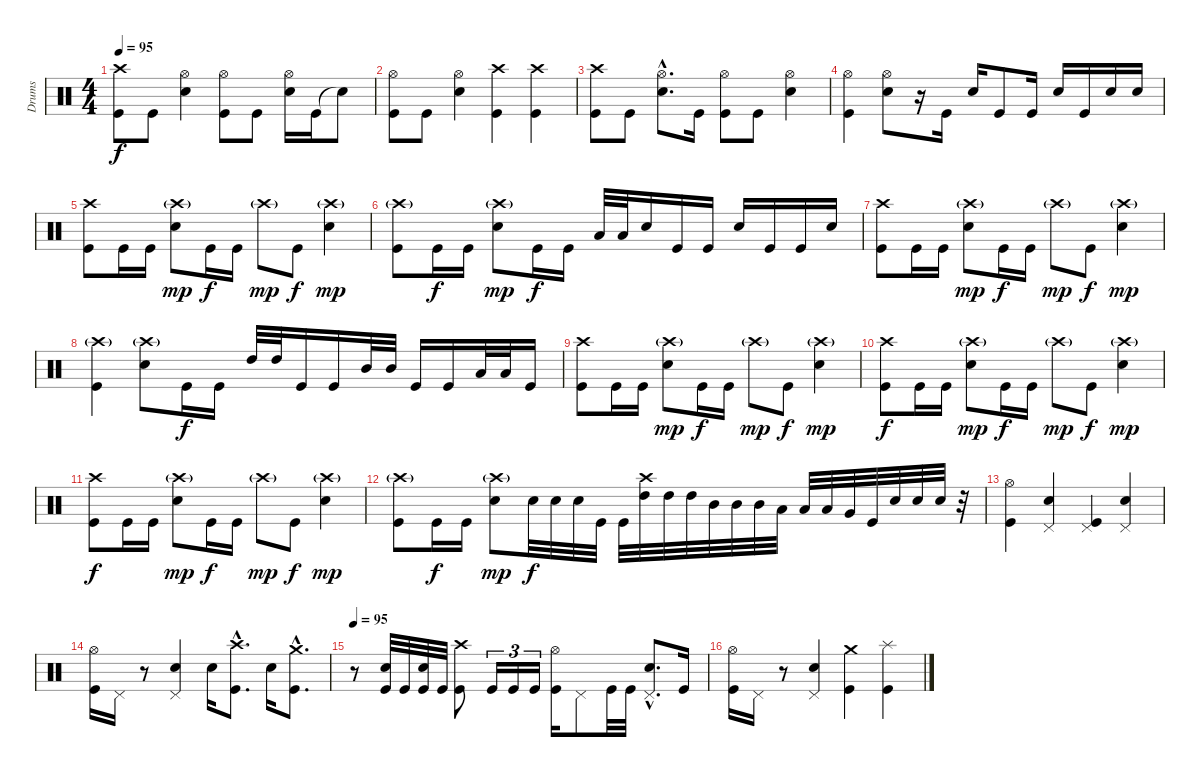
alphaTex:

\track ("Drums" "Drums") {instrument percussion}
\staff {score}
\articulation defaults
\ts (4 4)
\tempo 95
\clef neutral
\ks c
("Crash high (hit)" "Kick (hit)").8{dy f} "Kick (hit)".8 ("Hi-Hat (open)" "Electric Snare (hit)").4 ("Hi-Hat (open)" "Kick (hit)").8 "Kick (hit)".8 ("Hi-Hat (open)" "Electric Snare (hit)").16 "Kick (hit)".16 "Snare (hit)"{t}.8 |
("Hi-Hat (open)" "Kick (hit)").8 "Kick (hit)".8 ("Hi-Hat (open)" "Electric Snare (hit)").4 ("Crash high (hit)" "Kick (hit)").4 ("Crash high (hit)" "Kick (hit)").4 |
("Crash high (hit)" "Kick (hit)").8 "Kick (hit)".8 ("Hi-Hat (open)"{hac} "Electric Snare (hit)"{hac}).8{d} "Kick (hit)".16 ("Hi-Hat (open)" "Kick (hit)").8 "Kick (hit)".8 ("Hi-Hat (open)" "Electric Snare (hit)").4 |
("Hi-Hat (open)" "Kick (hit)").4 ("Hi-Hat (open)" "Electric Snare (hit)").8 r.16 "Kick (hit)".16 "Electric Snare (hit)".16 "Kick (hit)".8 "Kick (hit)".16 "Electric Snare (hit)".16 "Kick (hit)".16 "Electric Snare (hit)".16 "Electric Snare (hit)".16 |
("Crash high (hit)" "Kick (hit)").8 "Kick (hit)".16 "Kick (hit)".16 ("Crash high (hit)"{g} "Electric Snare (hit)").8{dy mp} "Kick (hit)".16{dy f} "Kick (hit)".16 "Crash high (hit)"{g}.8{dy mp} "Kick (hit)".8{dy f} ("Crash high (hit)"{g} "Electric Snare (hit)").4{dy mp} |
("Crash high (hit)"{g} "Kick (hit)").8 "Kick (hit)".16{dy f} "Kick (hit)".16 ("Crash high (hit)"{g} "Electric Snare (hit)").8{dy mp} "Kick (hit)".16{dy f} "Kick (hit)".16 "Low Tom (hit)".32 "Low Tom (hit)".32 "Electric Snare (hit)".16 "Kick (hit)".16 "Kick (hit)".16 "Electric Snare (hit)".16 "Kick (hit)".16 "Kick (hit)".16 "Electric Snare (hit)".16 |
("Crash high (hit)" "Kick (hit)").8 "Kick (hit)".16 "Kick (hit)".16 ("Crash high (hit)"{g} "Electric Snare (hit)").8{dy mp} "Kick (hit)".16{dy f} "Kick (hit)".16 "Crash high (hit)"{g}.8{dy mp} "Kick (hit)".8{dy f} ("Crash high (hit)"{g} "Electric Snare (hit)").4{dy mp} |
("Crash high (hit)"{g} "Kick (hit)").4 ("Crash high (hit)"{g} "Electric Snare (hit)").8 "Kick (hit)".16{dy f} "Kick (hit)".16 "High Tom (hit)".32 "High Tom (hit)".32 "Kick (hit)".16 "Kick (hit)".16 "Mid Tom (hit)".32 "Mid Tom (hit)".32 "Kick (hit)".16 "Kick (hit)".16 "Low Tom (hit)".32 "Low Tom (hit)".32 "Kick (hit)".16 |
("Crash high (hit)" "Kick (hit)").8 "Kick (hit)".16 "Kick (hit)".16 ("Crash high (hit)"{g} "Electric Snare (hit)").8{dy mp} "Kick (hit)".16{dy f} "Kick (hit)".16 "Crash high (hit)"{g}.8{dy mp} "Kick (hit)".8{dy f} ("Crash high (hit)"{g} "Electric Snare (hit)").4{dy mp} |
("Crash high (hit)" "Kick (hit)").8{dy f} "Kick (hit)".16 "Kick (hit)".16 ("Crash high (hit)"{g} "Electric Snare (hit)").8{dy mp} "Kick (hit)".16{dy f} "Kick (hit)".16 "Crash high (hit)"{g}.8{dy mp} "Kick (hit)".8{dy f} ("Crash high (hit)"{g} "Electric Snare (hit)").4{dy mp} |
("Crash high (hit)" "Kick (hit)").8{dy f} "Kick (hit)".16 "Kick (hit)".16 ("Crash high (hit)"{g} "Electric Snare (hit)").8{dy mp} "Kick (hit)".16{dy f} "Kick (hit)".16 "Crash high (hit)"{g}.8{dy mp} "Kick (hit)".8{dy f} ("Crash high (hit)"{g} "Electric Snare (hit)").4{dy mp} |
("Crash high (hit)"{g} "Kick (hit)").8 "Kick (hit)".16{dy f} "Kick (hit)".16 ("Crash high (hit)"{g} "Electric Snare (hit)").8{dy mp} "Electric Snare (hit)".32{dy f} "Electric Snare (hit)".32 "Electric Snare (hit)".32 "Kick (hit)".32 "Kick (hit)".32 ("Crash high (hit)" "High Tom (hit)").32 "High Tom (hit)".32 "High Tom (hit)".32 "Mid Tom (hit)".32 "Mid Tom (hit)".32 "Mid Tom (hit)".32 "Low Tom (hit)".32 "Low Tom (hit)".32 "Low Tom (hit)".32 "Very Low Tom (hit)".32 "Kick (hit)".32 "Electric Snare (hit)".32 "Electric Snare (hit)".32 "Electric Snare (hit)".32 r.32 |
("Hi-Hat (open)" "Kick (hit)").4 ("Pedal Hi-Hat (hit)" "Electric Snare (hit)").4 ("Pedal Hi-Hat (hit)" "Kick (hit)").4 ("Pedal Hi-Hat (hit)" "Electric Snare (hit)").4 |
("Hi-Hat (open)" "Kick (hit)").16 "Pedal Hi-Hat (hit)".16 r.8 ("Pedal Hi-Hat (hit)" "Electric Snare (hit)").4 "Electric Snare (hit)".16 ("Crash high (hit)"{hac} "Kick (hit)"{hac}).8{d} "Electric Snare (hit)".16 ("Crash medium (hit)"{hac} "Kick (hit)"{hac}).8{d} |
\tempo 95
r.8 ("Electric Snare (hit)" "Kick (hit)").32 "Kick (hit)".32 ("Electric Snare (hit)" "Kick (hit)").32 "Kick (hit)".32 ("Crash high (hit)" "Kick (hit)").8 "Kick (hit)".16{tu (3 2)} "Kick (hit)".16{tu (3 2)} "Kick (hit)".16{tu (3 2)} ("Hi-Hat (open)" "Kick (hit)").16 "Pedal Hi-Hat (hit)".8 "Kick (hit)".32 "Kick (hit)".32 ("Pedal Hi-Hat (hit)"{hac} "Electric Snare (hit)"{hac}).8{d} "Kick (hit)".16 |
("Hi-Hat (open)" "Kick (hit)").16 "Pedal Hi-Hat (hit)".16 r.8 ("Pedal Hi-Hat (hit)" "Electric Snare (hit)").4 ("Crash medium (hit)" "Kick (hit)").4 ("Splash (hit)" "Kick (hit)").4
